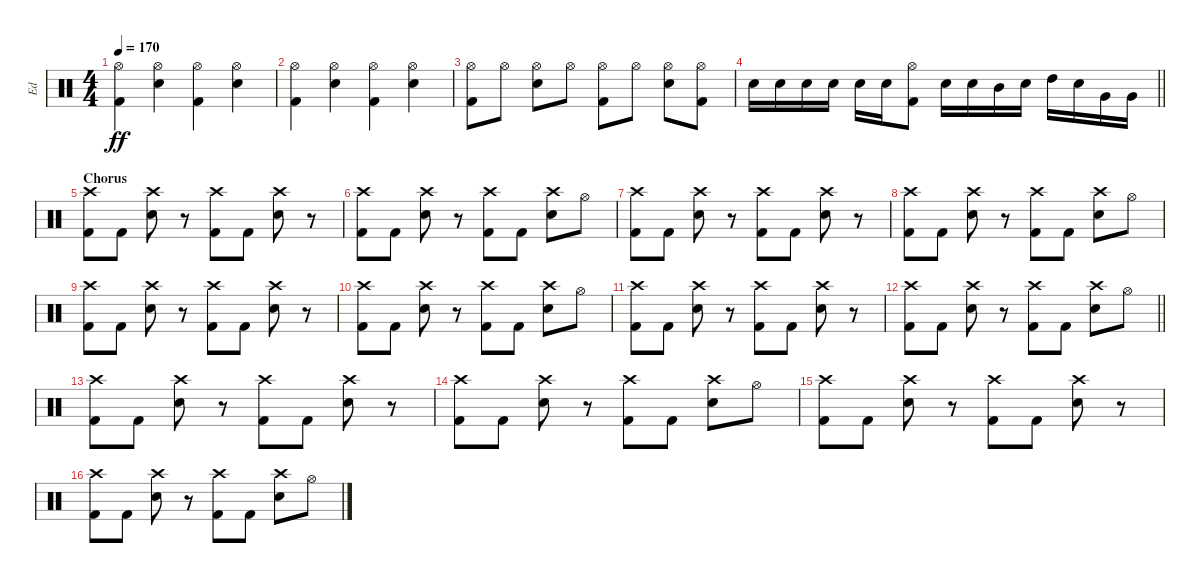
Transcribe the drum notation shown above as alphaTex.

\track ("Ed" "Ed") {instrument percussion}
\staff {score}
\articulation defaults
\ts (4 4)
\tempo 170
\clef neutral
\ks c
("Hi-Hat (open)" "Kick (hit) 2").4{dy ff} ("Hi-Hat (open)" "Snare (hit) 2").4 ("Hi-Hat (open)" "Kick (hit) 2").4 ("Hi-Hat (open)" "Snare (hit) 2").4 |
("Hi-Hat (open)" "Kick (hit) 2").4 ("Hi-Hat (open)" "Snare (hit) 2").4 ("Hi-Hat (open)" "Kick (hit) 2").4 ("Hi-Hat (open)" "Snare (hit) 2").4 |
("Hi-Hat (open)" "Kick (hit) 2").8 "Hi-Hat (open)".8 ("Hi-Hat (open)" "Snare (hit) 2").8 "Hi-Hat (open)".8 ("Hi-Hat (open)" "Kick (hit) 2").8 "Hi-Hat (open)".8 ("Hi-Hat (open)" "Snare (hit) 2").8 ("Hi-Hat (open)" "Kick (hit) 2").8 |
\barLineRight lightlight "Snare (hit) 2".16 "Snare (hit) 2".16 "Snare (hit) 2".16 "Snare (hit) 2".16 "Snare (hit) 2".16 "Snare (hit) 2".16
("Hi-Hat (open)" "Kick (hit) 2").8 "Snare (hit) 2".16 "Snare (hit) 2".16 "Mid Tom (hit)".16 "Snare (hit) 2".16 "High Tom (hit)".16 "Snare (hit) 2".16 "Very Low Tom (hit)".16 "Very Low Tom (hit)".16 |
\section ("" "Chorus")
("Kick (hit) 2" "Crash high (hit)").8 "Kick (hit) 2".8 ("Snare (hit) 2" "Crash high (hit)").8 r.8 ("Kick (hit) 2" "Crash high (hit)").8 "Kick (hit) 2".8 ("Snare (hit) 2" "Crash high (hit)").8 r.8 |
("Kick (hit) 2" "Crash high (hit)").8 "Kick (hit) 2".8 ("Snare (hit) 2" "Crash high (hit)").8 r.8 ("Kick (hit) 2" "Crash high (hit)").8 "Kick (hit) 2".8 ("Snare (hit) 2" "Crash high (hit)").8 "Hi-Hat (open)".8 |
("Kick (hit) 2" "Crash high (hit)").8 "Kick (hit) 2".8 ("Snare (hit) 2" "Crash high (hit)").8 r.8 ("Kick (hit) 2" "Crash high (hit)").8 "Kick (hit) 2".8 ("Snare (hit) 2" "Crash high (hit)").8 r.8 |
("Kick (hit) 2" "Crash high (hit)").8 "Kick (hit) 2".8 ("Snare (hit) 2" "Crash high (hit)").8 r.8 ("Kick (hit) 2" "Crash high (hit)").8 "Kick (hit) 2".8 ("Snare (hit) 2" "Crash high (hit)").8 "Hi-Hat (open)".8 |
("Kick (hit) 2" "Crash high (hit)").8 "Kick (hit) 2".8 ("Snare (hit) 2" "Crash high (hit)").8 r.8 ("Kick (hit) 2" "Crash high (hit)").8 "Kick (hit) 2".8 ("Snare (hit) 2" "Crash high (hit)").8 r.8 |
("Kick (hit) 2" "Crash high (hit)").8 "Kick (hit) 2".8 ("Snare (hit) 2" "Crash high (hit)").8 r.8 ("Kick (hit) 2" "Crash high (hit)").8 "Kick (hit) 2".8 ("Snare (hit) 2" "Crash high (hit)").8 "Hi-Hat (open)".8 |
("Kick (hit) 2" "Crash high (hit)").8 "Kick (hit) 2".8 ("Snare (hit) 2" "Crash high (hit)").8 r.8 ("Kick (hit) 2" "Crash high (hit)").8 "Kick (hit) 2".8 ("Snare (hit) 2" "Crash high (hit)").8 r.8 |
\barLineRight lightlight
("Kick (hit) 2" "Crash high (hit)").8 "Kick (hit) 2".8 ("Snare (hit) 2" "Crash high (hit)").8 r.8 ("Kick (hit) 2" "Crash high (hit)").8 "Kick (hit) 2".8 ("Snare (hit) 2" "Crash high (hit)").8 "Hi-Hat (open)".8 |
("Kick (hit) 2" "Crash high (hit)").8 "Kick (hit) 2".8 ("Snare (hit) 2" "Crash high (hit)").8 r.8 ("Kick (hit) 2" "Crash high (hit)").8 "Kick (hit) 2".8 ("Snare (hit) 2" "Crash high (hit)").8 r.8 |
("Kick (hit) 2" "Crash high (hit)").8 "Kick (hit) 2".8 ("Snare (hit) 2" "Crash high (hit)").8 r.8 ("Kick (hit) 2" "Crash high (hit)").8 "Kick (hit) 2".8 ("Snare (hit) 2" "Crash high (hit)").8 "Hi-Hat (open)".8 |
("Kick (hit) 2" "Crash high (hit)").8 "Kick (hit) 2".8 ("Snare (hit) 2" "Crash high (hit)").8 r.8 ("Kick (hit) 2" "Crash high (hit)").8 "Kick (hit) 2".8 ("Snare (hit) 2" "Crash high (hit)").8 r.8 |
("Kick (hit) 2" "Crash high (hit)").8 "Kick (hit) 2".8 ("Snare (hit) 2" "Crash high (hit)").8 r.8 ("Kick (hit) 2" "Crash high (hit)").8 "Kick (hit) 2".8 ("Snare (hit) 2" "Crash high (hit)").8 "Hi-Hat (open)".8
